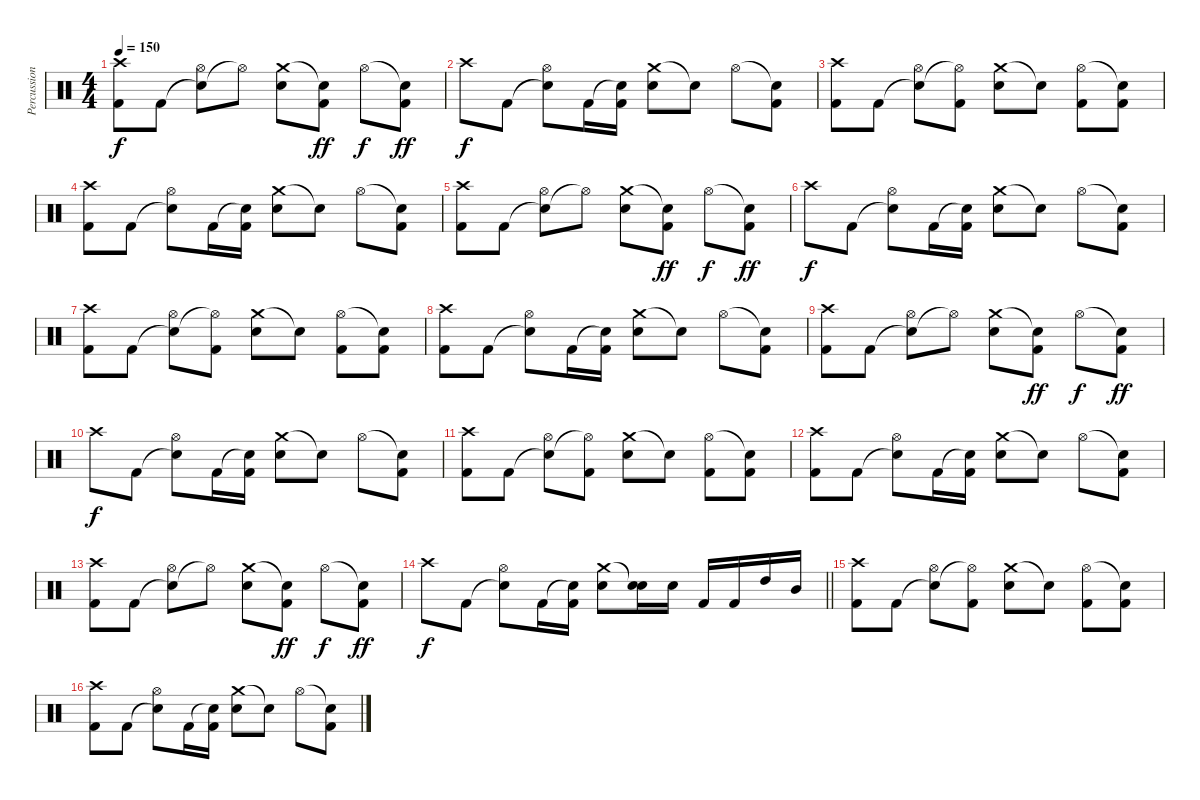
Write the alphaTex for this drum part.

\track ("Percussion" "Percussion") {instrument percussion}
\staff {score}
\articulation defaults
\ts (4 4)
\tempo 150
\clef neutral
\ks c
("Crash high (hit)" "Kick (hit) 2").8{dy f} "Kick (hit) 2".8 ("Snare (hit)"{t} "Hi-Hat (open)").8 "Hi-Hat (open)"{t}.8 ("Crash medium (hit)" "Electric Snare (hit)").8 ("Snare (hit)"{t} "Kick (hit) 2").8{dy ff} "Hi-Hat (open)".8{dy f} ("Snare (hit)"{t} "Kick (hit) 2").8{dy ff} |
"Crash high (hit)".8{dy f} "Kick (hit) 2".8 ("Snare (hit)"{t} "Hi-Hat (open)").8 "Kick (hit) 2".16 ("Snare (hit)"{t} "Kick (hit) 2").16 ("Crash medium (hit)" "Electric Snare (hit)").8 "Snare (hit)"{t}.8 "Hi-Hat (open)".8 ("Snare (hit)"{t} "Kick (hit) 2").8 |
("Crash high (hit)" "Kick (hit) 2").8 "Kick (hit) 2".8 ("Snare (hit)"{t} "Hi-Hat (open)").8 ("Hi-Hat (open)"{t} "Kick (hit) 2").8 ("Crash medium (hit)" "Electric Snare (hit)").8 "Snare (hit)"{t}.8 ("Hi-Hat (open)" "Kick (hit) 2").8 ("Snare (hit)"{t} "Kick (hit) 2").8 |
("Crash high (hit)" "Kick (hit) 2").8 "Kick (hit) 2".8 ("Snare (hit)"{t} "Hi-Hat (open)").8 "Kick (hit) 2".16 ("Snare (hit)"{t} "Kick (hit) 2").16 ("Crash medium (hit)" "Electric Snare (hit)").8 "Snare (hit)"{t}.8 "Hi-Hat (open)".8 ("Snare (hit)"{t} "Kick (hit) 2").8 |
("Crash high (hit)" "Kick (hit) 2").8 "Kick (hit) 2".8 ("Snare (hit)"{t} "Hi-Hat (open)").8 "Hi-Hat (open)"{t}.8 ("Crash medium (hit)" "Electric Snare (hit)").8 ("Snare (hit)"{t} "Kick (hit) 2").8{dy ff} "Hi-Hat (open)".8{dy f} ("Snare (hit)"{t} "Kick (hit) 2").8{dy ff} |
"Crash high (hit)".8{dy f} "Kick (hit) 2".8 ("Snare (hit)"{t} "Hi-Hat (open)").8 "Kick (hit) 2".16 ("Snare (hit)"{t} "Kick (hit) 2").16 ("Crash medium (hit)" "Electric Snare (hit)").8 "Snare (hit)"{t}.8 "Hi-Hat (open)".8 ("Snare (hit)"{t} "Kick (hit) 2").8 |
("Crash high (hit)" "Kick (hit) 2").8 "Kick (hit) 2".8 ("Snare (hit)"{t} "Hi-Hat (open)").8 ("Hi-Hat (open)"{t} "Kick (hit) 2").8 ("Crash medium (hit)" "Electric Snare (hit)").8 "Snare (hit)"{t}.8 ("Hi-Hat (open)" "Kick (hit) 2").8 ("Snare (hit)"{t} "Kick (hit) 2").8 |
("Crash high (hit)" "Kick (hit) 2").8 "Kick (hit) 2".8 ("Snare (hit)"{t} "Hi-Hat (open)").8 "Kick (hit) 2".16 ("Snare (hit)"{t} "Kick (hit) 2").16 ("Crash medium (hit)" "Electric Snare (hit)").8 "Snare (hit)"{t}.8 "Hi-Hat (open)".8 ("Snare (hit)"{t} "Kick (hit) 2").8 |
("Crash high (hit)" "Kick (hit) 2").8 "Kick (hit) 2".8 ("Snare (hit)"{t} "Hi-Hat (open)").8 "Hi-Hat (open)"{t}.8 ("Crash medium (hit)" "Electric Snare (hit)").8 ("Snare (hit)"{t} "Kick (hit) 2").8{dy ff} "Hi-Hat (open)".8{dy f} ("Snare (hit)"{t} "Kick (hit) 2").8{dy ff} |
"Crash high (hit)".8{dy f} "Kick (hit) 2".8 ("Snare (hit)"{t} "Hi-Hat (open)").8 "Kick (hit) 2".16 ("Snare (hit)"{t} "Kick (hit) 2").16 ("Crash medium (hit)" "Electric Snare (hit)").8 "Snare (hit)"{t}.8 "Hi-Hat (open)".8 ("Snare (hit)"{t} "Kick (hit) 2").8 |
("Crash high (hit)" "Kick (hit) 2").8 "Kick (hit) 2".8 ("Snare (hit)"{t} "Hi-Hat (open)").8 ("Hi-Hat (open)"{t} "Kick (hit) 2").8 ("Crash medium (hit)" "Electric Snare (hit)").8 "Snare (hit)"{t}.8 ("Hi-Hat (open)" "Kick (hit) 2").8 ("Snare (hit)"{t} "Kick (hit) 2").8 |
("Crash high (hit)" "Kick (hit) 2").8 "Kick (hit) 2".8 ("Snare (hit)"{t} "Hi-Hat (open)").8 "Kick (hit) 2".16 ("Snare (hit)"{t} "Kick (hit) 2").16 ("Crash medium (hit)" "Electric Snare (hit)").8 "Snare (hit)"{t}.8 "Hi-Hat (open)".8 ("Snare (hit)"{t} "Kick (hit) 2").8 |
("Crash high (hit)" "Kick (hit) 2").8 "Kick (hit) 2".8 ("Snare (hit)"{t} "Hi-Hat (open)").8 "Hi-Hat (open)"{t}.8 ("Crash medium (hit)" "Electric Snare (hit)").8 ("Snare (hit)"{t} "Kick (hit) 2").8{dy ff} "Hi-Hat (open)".8{dy f} ("Snare (hit)"{t} "Kick (hit) 2").8{dy ff} |
\barLineRight lightlight "Crash high (hit)".8{dy f} "Kick (hit) 2".8
("Snare (hit)"{t} "Hi-Hat (open)").8 "Kick (hit) 2".16 ("Snare (hit)"{t} "Kick (hit) 2").16 ("Crash medium (hit)" "Electric Snare (hit)").8 ("Snare (hit)"{t} "Electric Snare (hit)").16 "Electric Snare (hit)".16 "Kick (hit) 2".16 "Kick (hit) 2".16 "High Tom (hit)".16 "Mid Tom (hit)".16 |
("Crash high (hit)" "Kick (hit) 2").8 "Kick (hit) 2".8 ("Snare (hit)"{t} "Hi-Hat (open)").8 ("Hi-Hat (open)"{t} "Kick (hit) 2").8 ("Crash medium (hit)" "Electric Snare (hit)").8 "Snare (hit)"{t}.8 ("Hi-Hat (open)" "Kick (hit) 2").8 ("Snare (hit)"{t} "Kick (hit) 2").8 |
("Crash high (hit)" "Kick (hit) 2").8 "Kick (hit) 2".8 ("Snare (hit)"{t} "Hi-Hat (open)").8 "Kick (hit) 2".16 ("Snare (hit)"{t} "Kick (hit) 2").16 ("Crash medium (hit)" "Electric Snare (hit)").8 "Snare (hit)"{t}.8 "Hi-Hat (open)".8 ("Snare (hit)"{t} "Kick (hit) 2").8
